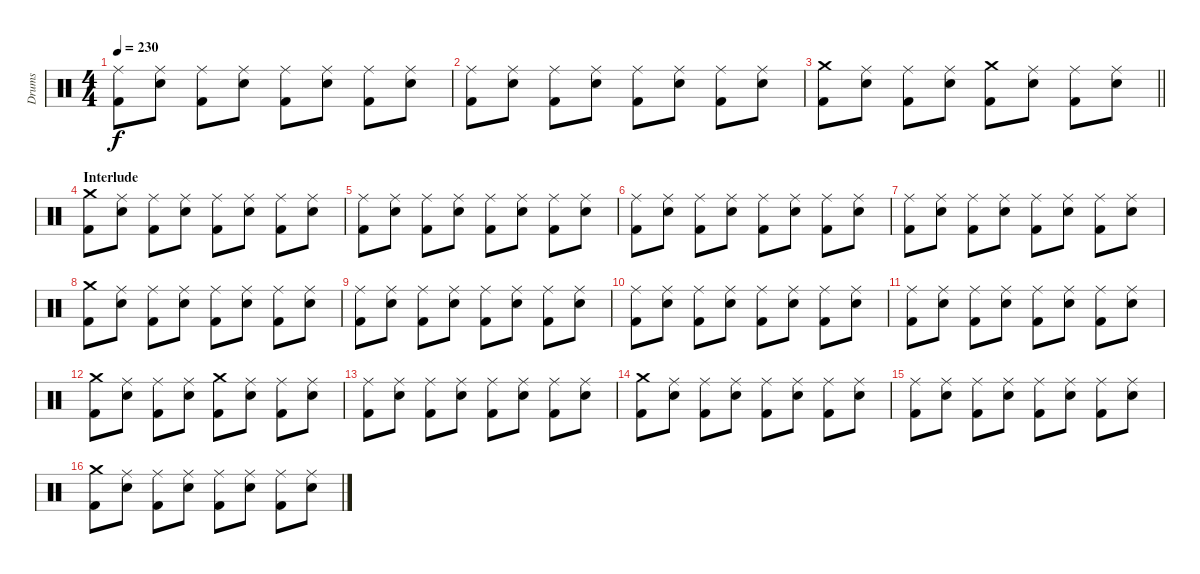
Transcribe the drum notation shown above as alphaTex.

\track ("Drums" "Drums") {instrument percussion}
\staff {score}
\articulation defaults
\ts (4 4)
\tempo 230
\clef neutral
\ks c
("Ride (middle)" "Kick (hit) 2").8{dy f} ("Ride (middle)" "Electric Snare (hit)").8 ("Ride (middle)" "Kick (hit) 2").8 ("Ride (middle)" "Electric Snare (hit)").8 ("Ride (middle)" "Kick (hit) 2").8 ("Ride (middle)" "Electric Snare (hit)").8 ("Ride (middle)" "Kick (hit) 2").8 ("Ride (middle)" "Electric Snare (hit)").8 |
("Ride (middle)" "Kick (hit) 2").8 ("Ride (middle)" "Electric Snare (hit)").8 ("Ride (middle)" "Kick (hit) 2").8 ("Ride (middle)" "Electric Snare (hit)").8 ("Ride (middle)" "Kick (hit) 2").8 ("Ride (middle)" "Electric Snare (hit)").8 ("Ride (middle)" "Kick (hit) 2").8 ("Ride (middle)" "Electric Snare (hit)").8 |
\barLineRight lightlight
("Crash medium (hit)" "Kick (hit) 2").8 ("Ride (middle)" "Electric Snare (hit)").8 ("Ride (middle)" "Kick (hit) 2").8 ("Ride (middle)" "Electric Snare (hit)").8 ("Crash medium (hit)" "Kick (hit) 2").8 ("Ride (middle)" "Electric Snare (hit)").8 ("Ride (middle)" "Kick (hit) 2").8 ("Ride (middle)" "Electric Snare (hit)").8 |
\section ("" "Interlude")
("Crash medium (hit)" "Kick (hit) 2").8 ("Ride (middle)" "Electric Snare (hit)").8 ("Ride (middle)" "Kick (hit) 2").8 ("Ride (middle)" "Electric Snare (hit)").8 ("Ride (middle)" "Kick (hit) 2").8 ("Ride (middle)" "Electric Snare (hit)").8 ("Ride (middle)" "Kick (hit) 2").8 ("Ride (middle)" "Electric Snare (hit)").8 |
("Ride (middle)" "Kick (hit) 2").8 ("Ride (middle)" "Electric Snare (hit)").8 ("Ride (middle)" "Kick (hit) 2").8 ("Ride (middle)" "Electric Snare (hit)").8 ("Ride (middle)" "Kick (hit) 2").8 ("Ride (middle)" "Electric Snare (hit)").8 ("Ride (middle)" "Kick (hit) 2").8 ("Ride (middle)" "Electric Snare (hit)").8 |
("Ride (middle)" "Kick (hit) 2").8 ("Ride (middle)" "Electric Snare (hit)").8 ("Ride (middle)" "Kick (hit) 2").8 ("Ride (middle)" "Electric Snare (hit)").8 ("Ride (middle)" "Kick (hit) 2").8 ("Ride (middle)" "Electric Snare (hit)").8 ("Ride (middle)" "Kick (hit) 2").8 ("Ride (middle)" "Electric Snare (hit)").8 |
("Ride (middle)" "Kick (hit) 2").8 ("Ride (middle)" "Electric Snare (hit)").8 ("Ride (middle)" "Kick (hit) 2").8 ("Ride (middle)" "Electric Snare (hit)").8 ("Ride (middle)" "Kick (hit) 2").8 ("Ride (middle)" "Electric Snare (hit)").8 ("Ride (middle)" "Kick (hit) 2").8 ("Ride (middle)" "Electric Snare (hit)").8 |
("Crash medium (hit)" "Kick (hit) 2").8 ("Ride (middle)" "Electric Snare (hit)").8 ("Ride (middle)" "Kick (hit) 2").8 ("Ride (middle)" "Electric Snare (hit)").8 ("Ride (middle)" "Kick (hit) 2").8 ("Ride (middle)" "Electric Snare (hit)").8 ("Ride (middle)" "Kick (hit) 2").8 ("Ride (middle)" "Electric Snare (hit)").8 |
("Ride (middle)" "Kick (hit) 2").8 ("Ride (middle)" "Electric Snare (hit)").8 ("Ride (middle)" "Kick (hit) 2").8 ("Ride (middle)" "Electric Snare (hit)").8 ("Ride (middle)" "Kick (hit) 2").8 ("Ride (middle)" "Electric Snare (hit)").8 ("Ride (middle)" "Kick (hit) 2").8 ("Ride (middle)" "Electric Snare (hit)").8 |
("Ride (middle)" "Kick (hit) 2").8 ("Ride (middle)" "Electric Snare (hit)").8 ("Ride (middle)" "Kick (hit) 2").8 ("Ride (middle)" "Electric Snare (hit)").8 ("Ride (middle)" "Kick (hit) 2").8 ("Ride (middle)" "Electric Snare (hit)").8 ("Ride (middle)" "Kick (hit) 2").8 ("Ride (middle)" "Electric Snare (hit)").8 |
("Ride (middle)" "Kick (hit) 2").8 ("Ride (middle)" "Electric Snare (hit)").8 ("Ride (middle)" "Kick (hit) 2").8 ("Ride (middle)" "Electric Snare (hit)").8 ("Ride (middle)" "Kick (hit) 2").8 ("Ride (middle)" "Electric Snare (hit)").8 ("Ride (middle)" "Kick (hit) 2").8 ("Ride (middle)" "Electric Snare (hit)").8 |
("Crash medium (hit)" "Kick (hit) 2").8 ("Ride (middle)" "Electric Snare (hit)").8 ("Ride (middle)" "Kick (hit) 2").8 ("Ride (middle)" "Electric Snare (hit)").8 ("Crash medium (hit)" "Kick (hit) 2").8 ("Ride (middle)" "Electric Snare (hit)").8 ("Ride (middle)" "Kick (hit) 2").8 ("Ride (middle)" "Electric Snare (hit)").8 |
("Ride (middle)" "Kick (hit) 2").8 ("Ride (middle)" "Electric Snare (hit)").8 ("Ride (middle)" "Kick (hit) 2").8 ("Ride (middle)" "Electric Snare (hit)").8 ("Ride (middle)" "Kick (hit) 2").8 ("Ride (middle)" "Electric Snare (hit)").8 ("Ride (middle)" "Kick (hit) 2").8 ("Ride (middle)" "Electric Snare (hit)").8 |
("Crash medium (hit)" "Kick (hit) 2").8 ("Ride (middle)" "Electric Snare (hit)").8 ("Ride (middle)" "Kick (hit) 2").8 ("Ride (middle)" "Electric Snare (hit)").8 ("Ride (middle)" "Kick (hit) 2").8 ("Ride (middle)" "Electric Snare (hit)").8 ("Ride (middle)" "Kick (hit) 2").8 ("Ride (middle)" "Electric Snare (hit)").8 |
("Ride (middle)" "Kick (hit) 2").8 ("Ride (middle)" "Electric Snare (hit)").8 ("Ride (middle)" "Kick (hit) 2").8 ("Ride (middle)" "Electric Snare (hit)").8 ("Ride (middle)" "Kick (hit) 2").8 ("Ride (middle)" "Electric Snare (hit)").8 ("Ride (middle)" "Kick (hit) 2").8 ("Ride (middle)" "Electric Snare (hit)").8 |
("Crash medium (hit)" "Kick (hit) 2").8 ("Ride (middle)" "Electric Snare (hit)").8 ("Ride (middle)" "Kick (hit) 2").8 ("Ride (middle)" "Electric Snare (hit)").8 ("Ride (middle)" "Kick (hit) 2").8 ("Ride (middle)" "Electric Snare (hit)").8 ("Ride (middle)" "Kick (hit) 2").8 ("Ride (middle)" "Electric Snare (hit)").8
